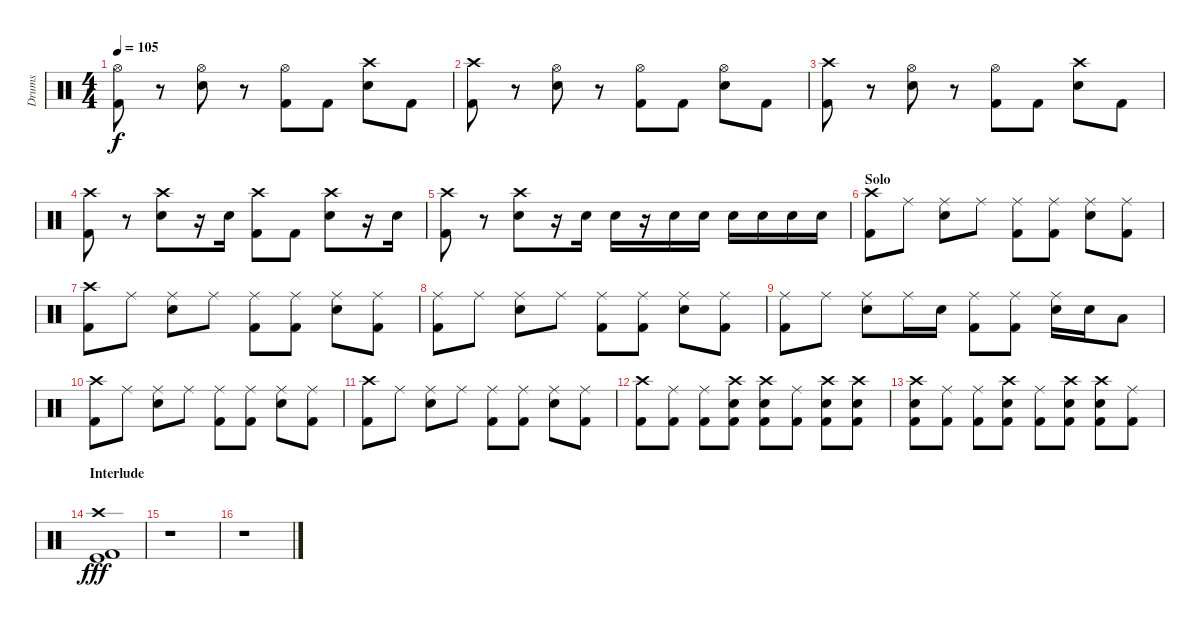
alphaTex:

\track ("Drums" "Drums") {instrument percussion}
\staff {score}
\articulation defaults
\ts (4 4)
\tempo 105
\clef neutral
\ks c
("Hi-Hat (open)" "Kick (hit) 2").8{dy f} r.8 ("Hi-Hat (open)" "Electric Snare (hit)").8 r.8 ("Hi-Hat (open)" "Kick (hit) 2").8 "Kick (hit) 2".8 ("Crash high (hit)" "Electric Snare (hit)").8 "Kick (hit) 2".8 |
("Crash high (hit)" "Kick (hit) 2").8 r.8 ("Hi-Hat (open)" "Electric Snare (hit)").8 r.8 ("Hi-Hat (open)" "Kick (hit) 2").8 "Kick (hit) 2".8 ("Hi-Hat (open)" "Electric Snare (hit)").8 "Kick (hit) 2".8 |
("Crash high (hit)" "Kick (hit) 2").8 r.8 ("Hi-Hat (open)" "Electric Snare (hit)").8 r.8 ("Hi-Hat (open)" "Kick (hit) 2").8 "Kick (hit) 2".8 ("Crash high (hit)" "Electric Snare (hit)").8 "Kick (hit) 2".8 |
("Crash high (hit)" "Kick (hit) 2").8 r.8 ("Crash high (hit)" "Electric Snare (hit)").8 r.16 "Electric Snare (hit)".16 ("Crash high (hit)" "Kick (hit) 2").8 "Kick (hit) 2".8 ("Crash high (hit)" "Electric Snare (hit)").8 r.16 "Electric Snare (hit)".16 |
("Crash high (hit)" "Kick (hit) 2").8 r.8 ("Crash high (hit)" "Electric Snare (hit)").8 r.16 "Electric Snare (hit)".16 "Electric Snare (hit)".16 r.16 "Electric Snare (hit)".16 "Electric Snare (hit)".16 "Electric Snare (hit)".16 "Electric Snare (hit)".16 "Electric Snare (hit)".16 "Electric Snare (hit)".16 |
\section ("" "Solo")
("Crash high (hit)" "Kick (hit) 2").8 "Ride (middle)".8 ("Ride (middle)" "Electric Snare (hit)").8 "Ride (middle)".8 ("Ride (middle)" "Kick (hit) 2").8 ("Ride (middle)" "Kick (hit) 2").8 ("Ride (middle)" "Electric Snare (hit)").8 ("Ride (middle)" "Kick (hit) 2").8 |
("Crash high (hit)" "Kick (hit) 2").8 "Ride (middle)".8 ("Ride (middle)" "Electric Snare (hit)").8 "Ride (middle)".8 ("Ride (middle)" "Kick (hit) 2").8 ("Ride (middle)" "Kick (hit) 2").8 ("Ride (middle)" "Electric Snare (hit)").8 ("Ride (middle)" "Kick (hit) 2").8 |
("Ride (middle)" "Kick (hit) 2").8 "Ride (middle)".8 ("Ride (middle)" "Electric Snare (hit)").8 "Ride (middle)".8 ("Ride (middle)" "Kick (hit) 2").8 ("Ride (middle)" "Kick (hit) 2").8 ("Ride (middle)" "Electric Snare (hit)").8 ("Ride (middle)" "Kick (hit) 2").8 |
("Ride (middle)" "Kick (hit) 2").8 "Ride (middle)".8 ("Ride (middle)" "Electric Snare (hit)").8 "Ride (middle)".16 "Electric Snare (hit)".16 ("Ride (middle)" "Kick (hit) 2").8 ("Ride (middle)" "Kick (hit) 2").8 ("Ride (middle)" "Electric Snare (hit)").16 "Electric Snare (hit)".16 "Low Tom (hit)".8 |
("Crash high (hit)" "Kick (hit) 2").8 "Ride (middle)".8 ("Ride (middle)" "Electric Snare (hit)").8 "Ride (middle)".8 ("Ride (middle)" "Kick (hit) 2").8 ("Ride (middle)" "Kick (hit) 2").8 ("Ride (middle)" "Electric Snare (hit)").8 ("Ride (middle)" "Kick (hit) 2").8 |
("Crash high (hit)" "Kick (hit) 2").8 "Ride (middle)".8 ("Ride (middle)" "Electric Snare (hit)").8 "Ride (middle)".8 ("Ride (middle)" "Kick (hit) 2").8 ("Ride (middle)" "Kick (hit) 2").8 ("Ride (middle)" "Electric Snare (hit)").8 ("Ride (middle)" "Kick (hit) 2").8 |
("Crash high (hit)" "Kick (hit) 2").8 ("Ride (middle)" "Kick (hit) 2").8 ("Ride (middle)" "Kick (hit) 2").8 ("Crash high (hit)" "Electric Snare (hit)" "Kick (hit) 2").8 ("Crash high (hit)" "Electric Snare (hit)" "Kick (hit) 2").8 ("Ride (middle)" "Kick (hit) 2").8 ("Crash high (hit)" "Electric Snare (hit)" "Kick (hit) 2").8 ("Crash high (hit)" "Electric Snare (hit)" "Kick (hit) 2").8 |
("Crash high (hit)" "Electric Snare (hit)" "Kick (hit) 2").8 ("Ride (middle)" "Kick (hit) 2").8 ("Ride (middle)" "Kick (hit) 2").8 ("Crash high (hit)" "Electric Snare (hit)" "Kick (hit) 2").8 ("Ride (middle)" "Kick (hit) 2").8 ("Crash high (hit)" "Electric Snare (hit)" "Kick (hit) 2").8 ("Crash high (hit)" "Electric Snare (hit)" "Kick (hit) 2").8 ("Ride (middle)" "Kick (hit) 2").8 |
\section ("" "Interlude")
("Crash high (hit)" "Kick (hit)" "Kick (hit) 2").1{dy fff} |
r.1 |
r.1
